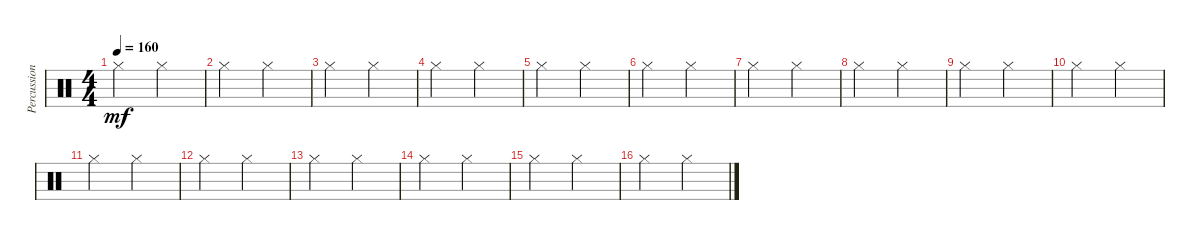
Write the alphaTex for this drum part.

\track ("Percussions" "Percussion") {instrument percussion}
\staff {score}
\articulation defaults
\ts (4 4)
\tempo 160
\clef neutral
\ks c "Hi-Hat (closed)".2{dy mf} "Hi-Hat (closed)".2
|
"Hi-Hat (closed)".2 "Hi-Hat (closed)".2 |
"Hi-Hat (closed)".2 "Hi-Hat (closed)".2 |
"Hi-Hat (closed)".2 "Hi-Hat (closed)".2 |
"Hi-Hat (closed)".2 "Hi-Hat (closed)".2 |
"Hi-Hat (closed)".2 "Hi-Hat (closed)".2 |
"Hi-Hat (closed)".2 "Hi-Hat (closed)".2 |
"Hi-Hat (closed)".2 "Hi-Hat (closed)".2 |
"Hi-Hat (closed)".2 "Hi-Hat (closed)".2 |
"Hi-Hat (closed)".2 "Hi-Hat (closed)".2 |
"Hi-Hat (closed)".2 "Hi-Hat (closed)".2 |
"Hi-Hat (closed)".2 "Hi-Hat (closed)".2 |
"Hi-Hat (closed)".2 "Hi-Hat (closed)".2 |
"Hi-Hat (closed)".2 "Hi-Hat (closed)".2 |
"Hi-Hat (closed)".2 "Hi-Hat (closed)".2 |
"Hi-Hat (closed)".2 "Hi-Hat (closed)".2
